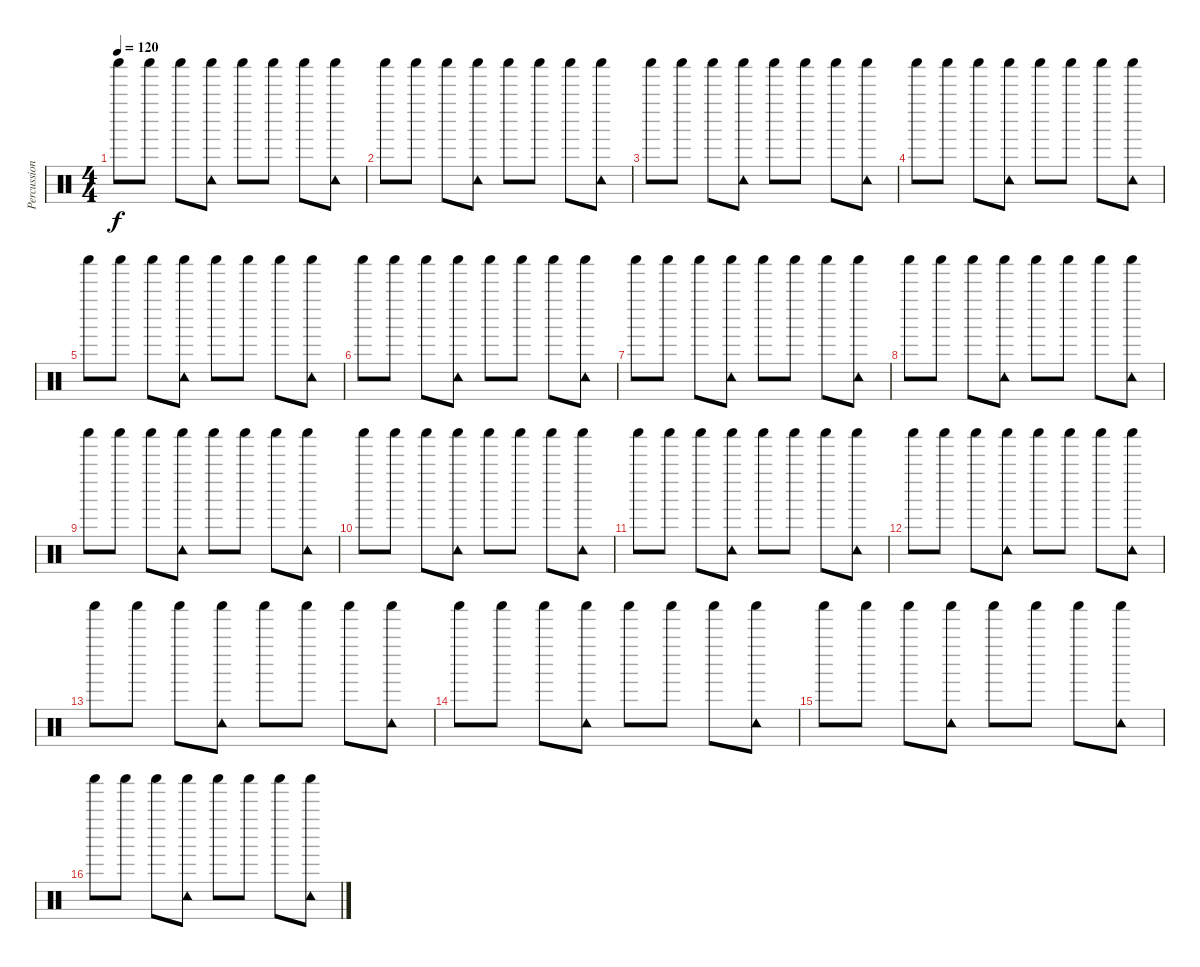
\track ("Percussioni" "Percussion") {instrument percussion}
\staff {score}
\articulation defaults
\ts (4 4)
\tempo 120
\clef neutral
\ks c "Shaker (hit)".8{dy f} "Shaker (hit)".8 "Shaker (hit)".8
("Shaker (hit)" "Tambourine (hit)").8 "Shaker (hit)".8 "Shaker (hit)".8 "Shaker (hit)".8 ("Shaker (hit)" "Tambourine (hit)").8 |
"Shaker (hit)".8 "Shaker (hit)".8 "Shaker (hit)".8 ("Shaker (hit)" "Tambourine (hit)").8 "Shaker (hit)".8 "Shaker (hit)".8 "Shaker (hit)".8 ("Shaker (hit)" "Tambourine (hit)").8 |
"Shaker (hit)".8 "Shaker (hit)".8 "Shaker (hit)".8 ("Shaker (hit)" "Tambourine (hit)").8 "Shaker (hit)".8 "Shaker (hit)".8 "Shaker (hit)".8 ("Shaker (hit)" "Tambourine (hit)").8 |
"Shaker (hit)".8 "Shaker (hit)".8 "Shaker (hit)".8 ("Shaker (hit)" "Tambourine (hit)").8 "Shaker (hit)".8 "Shaker (hit)".8 "Shaker (hit)".8 ("Shaker (hit)" "Tambourine (hit)").8 |
"Shaker (hit)".8 "Shaker (hit)".8 "Shaker (hit)".8 ("Shaker (hit)" "Tambourine (hit)").8 "Shaker (hit)".8 "Shaker (hit)".8 "Shaker (hit)".8 ("Shaker (hit)" "Tambourine (hit)").8 |
"Shaker (hit)".8 "Shaker (hit)".8 "Shaker (hit)".8 ("Shaker (hit)" "Tambourine (hit)").8 "Shaker (hit)".8 "Shaker (hit)".8 "Shaker (hit)".8 ("Shaker (hit)" "Tambourine (hit)").8 |
"Shaker (hit)".8 "Shaker (hit)".8 "Shaker (hit)".8 ("Shaker (hit)" "Tambourine (hit)").8 "Shaker (hit)".8 "Shaker (hit)".8 "Shaker (hit)".8 ("Shaker (hit)" "Tambourine (hit)").8 |
"Shaker (hit)".8 "Shaker (hit)".8 "Shaker (hit)".8 ("Shaker (hit)" "Tambourine (hit)").8 "Shaker (hit)".8 "Shaker (hit)".8 "Shaker (hit)".8 ("Shaker (hit)" "Tambourine (hit)").8 |
"Shaker (hit)".8 "Shaker (hit)".8 "Shaker (hit)".8 ("Shaker (hit)" "Tambourine (hit)").8 "Shaker (hit)".8 "Shaker (hit)".8 "Shaker (hit)".8 ("Shaker (hit)" "Tambourine (hit)").8 |
"Shaker (hit)".8 "Shaker (hit)".8 "Shaker (hit)".8 ("Shaker (hit)" "Tambourine (hit)").8 "Shaker (hit)".8 "Shaker (hit)".8 "Shaker (hit)".8 ("Shaker (hit)" "Tambourine (hit)").8 |
"Shaker (hit)".8 "Shaker (hit)".8 "Shaker (hit)".8 ("Shaker (hit)" "Tambourine (hit)").8 "Shaker (hit)".8 "Shaker (hit)".8 "Shaker (hit)".8 ("Shaker (hit)" "Tambourine (hit)").8 |
"Shaker (hit)".8 "Shaker (hit)".8 "Shaker (hit)".8 ("Shaker (hit)" "Tambourine (hit)").8 "Shaker (hit)".8 "Shaker (hit)".8 "Shaker (hit)".8 ("Shaker (hit)" "Tambourine (hit)").8 |
"Shaker (hit)".8 "Shaker (hit)".8 "Shaker (hit)".8 ("Shaker (hit)" "Tambourine (hit)").8 "Shaker (hit)".8 "Shaker (hit)".8 "Shaker (hit)".8 ("Shaker (hit)" "Tambourine (hit)").8 |
"Shaker (hit)".8 "Shaker (hit)".8 "Shaker (hit)".8 ("Shaker (hit)" "Tambourine (hit)").8 "Shaker (hit)".8 "Shaker (hit)".8 "Shaker (hit)".8 ("Shaker (hit)" "Tambourine (hit)").8 |
"Shaker (hit)".8 "Shaker (hit)".8 "Shaker (hit)".8 ("Shaker (hit)" "Tambourine (hit)").8 "Shaker (hit)".8 "Shaker (hit)".8 "Shaker (hit)".8 ("Shaker (hit)" "Tambourine (hit)").8 |
"Shaker (hit)".8 "Shaker (hit)".8 "Shaker (hit)".8 ("Shaker (hit)" "Tambourine (hit)").8 "Shaker (hit)".8 "Shaker (hit)".8 "Shaker (hit)".8 ("Shaker (hit)" "Tambourine (hit)").8
